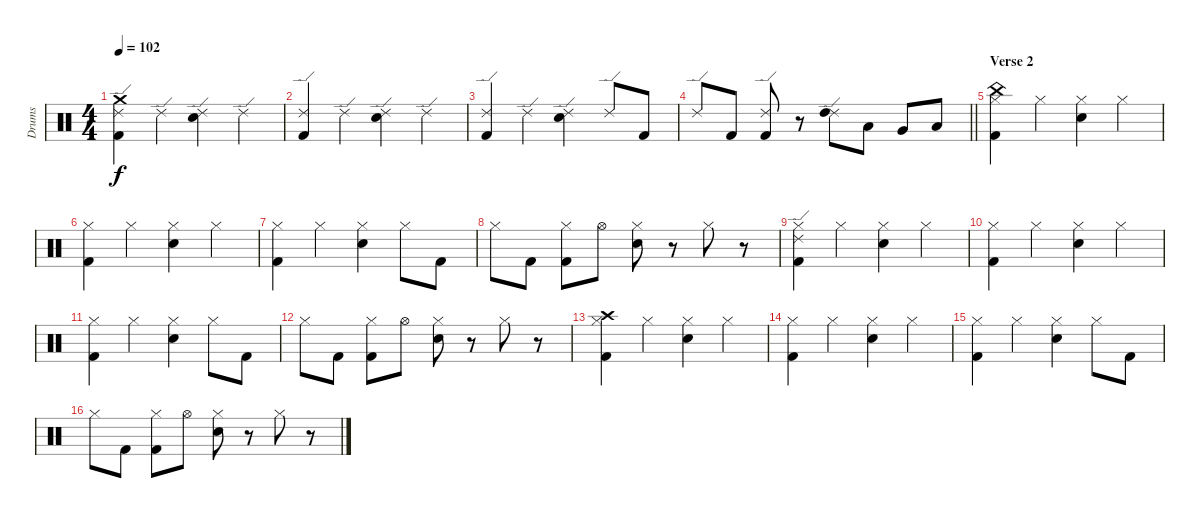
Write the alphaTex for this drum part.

\track ("Drums" "Drums") {instrument percussion}
\staff {score}
\articulation defaults
\ts (4 4)
\tempo 102
\clef neutral
\ks c
("Crash medium (hit)" "Ride (edge) 2" "Kick (hit) 2").4{dy f} "Ride (edge) 2".4 ("Ride (edge) 2" "Electric Snare (hit)").4 "Ride (edge) 2".4 |
("Ride (edge) 2" "Kick (hit) 2").4 "Ride (edge) 2".4 ("Ride (edge) 2" "Electric Snare (hit)").4 "Ride (edge) 2".4 |
("Ride (edge) 2" "Kick (hit) 2").4 "Ride (edge) 2".4 ("Ride (edge) 2" "Electric Snare (hit)").4 "Ride (edge) 2".8 "Kick (hit) 2".8 |
\barLineRight lightlight "Ride (edge) 2".8 "Kick (hit) 2".8
("Ride (edge) 2" "Kick (hit) 2").8 r.8 ("Ride (edge) 2" "High Tom (hit)").8 "Low Tom (hit)".8 "Very Low Tom (hit)".8 "Low Floor Tom (hit)".8 |
\section ("" "Verse 2")
("China (hit)" "Hi-Hat (closed)" "Kick (hit) 2").4 "Hi-Hat (closed)".4 ("Hi-Hat (closed)" "Electric Snare (hit)").4 "Hi-Hat (closed)".4 |
("Hi-Hat (closed)" "Kick (hit) 2").4 "Hi-Hat (closed)".4 ("Hi-Hat (closed)" "Electric Snare (hit)").4 "Hi-Hat (closed)".4 |
("Hi-Hat (closed)" "Kick (hit) 2").4 "Hi-Hat (closed)".4 ("Hi-Hat (closed)" "Electric Snare (hit)").4 "Hi-Hat (closed)".8 "Kick (hit) 2".8 |
"Hi-Hat (closed)".8 "Kick (hit) 2".8 ("Hi-Hat (closed)" "Kick (hit) 2").8 "Hi-Hat (open)".8 ("Hi-Hat (closed)" "Electric Snare (hit)").8 r.8 "Hi-Hat (closed)".8 r.8 |
("Ride (edge) 2" "Hi-Hat (closed)" "Kick (hit) 2").4 "Hi-Hat (closed)".4 ("Hi-Hat (closed)" "Electric Snare (hit)").4 "Hi-Hat (closed)".4 |
("Hi-Hat (closed)" "Kick (hit) 2").4 "Hi-Hat (closed)".4 ("Hi-Hat (closed)" "Electric Snare (hit)").4 "Hi-Hat (closed)".4 |
("Hi-Hat (closed)" "Kick (hit) 2").4 "Hi-Hat (closed)".4 ("Hi-Hat (closed)" "Electric Snare (hit)").4 "Hi-Hat (closed)".8 "Kick (hit) 2".8 |
"Hi-Hat (closed)".8 "Kick (hit) 2".8 ("Hi-Hat (closed)" "Kick (hit) 2").8 "Hi-Hat (open)".8 ("Hi-Hat (closed)" "Electric Snare (hit)").8 r.8 "Hi-Hat (closed)".8 r.8 |
("Crash high (hit)" "Hi-Hat (closed)" "Kick (hit) 2").4 "Hi-Hat (closed)".4 ("Hi-Hat (closed)" "Electric Snare (hit)").4 "Hi-Hat (closed)".4 |
("Hi-Hat (closed)" "Kick (hit) 2").4 "Hi-Hat (closed)".4 ("Hi-Hat (closed)" "Electric Snare (hit)").4 "Hi-Hat (closed)".4 |
("Hi-Hat (closed)" "Kick (hit) 2").4 "Hi-Hat (closed)".4 ("Hi-Hat (closed)" "Electric Snare (hit)").4 "Hi-Hat (closed)".8 "Kick (hit) 2".8 |
"Hi-Hat (closed)".8 "Kick (hit) 2".8 ("Hi-Hat (closed)" "Kick (hit) 2").8 "Hi-Hat (open)".8 ("Hi-Hat (closed)" "Electric Snare (hit)").8 r.8 "Hi-Hat (closed)".8 r.8
